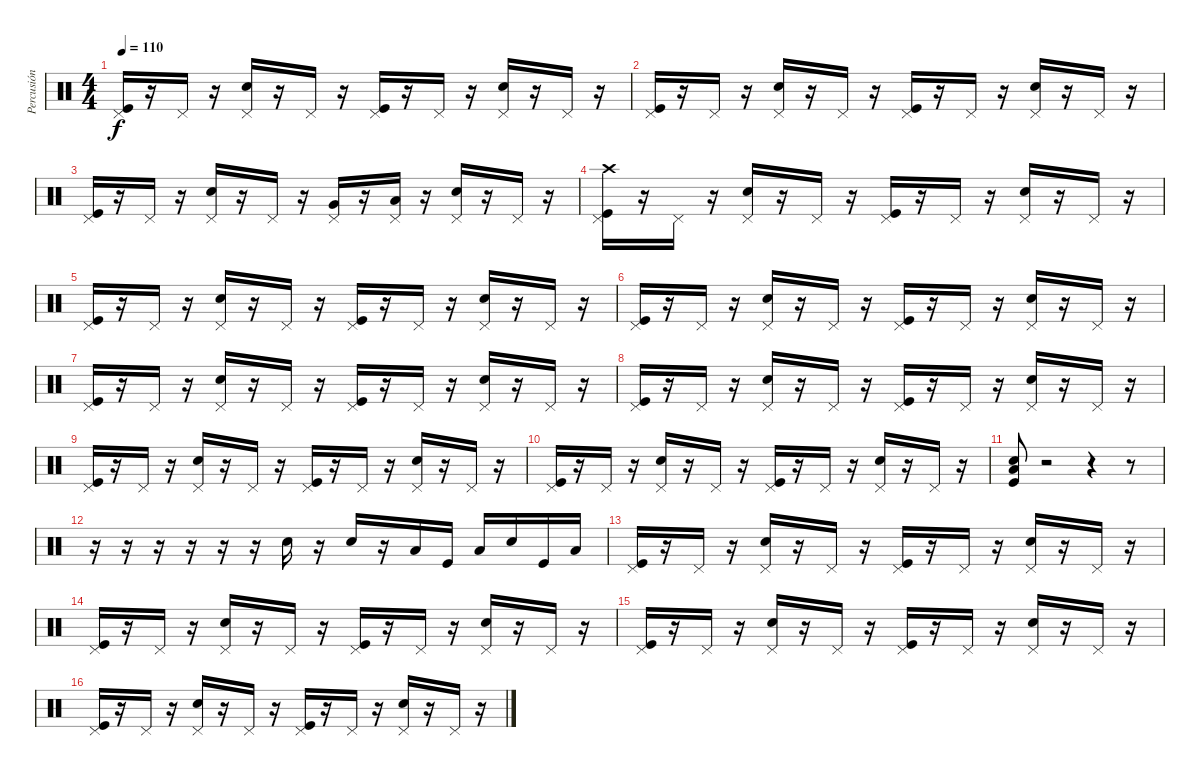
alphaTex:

\track ("Percusión" "Percusión") {instrument percussion}
\staff {score}
\articulation defaults
\ts (4 4)
\tempo 110
\clef neutral
\ks c
("Pedal Hi-Hat (hit)" "Kick (hit)").16{dy f} r.16 "Pedal Hi-Hat (hit)".16 r.16 ("Pedal Hi-Hat (hit)" "Electric Snare (hit)").16 r.16 "Pedal Hi-Hat (hit)".16 r.16 ("Pedal Hi-Hat (hit)" "Kick (hit)").16 r.16 "Pedal Hi-Hat (hit)".16 r.16 ("Pedal Hi-Hat (hit)" "Electric Snare (hit)").16 r.16 "Pedal Hi-Hat (hit)".16 r.16 |
("Pedal Hi-Hat (hit)" "Kick (hit)").16 r.16 "Pedal Hi-Hat (hit)".16 r.16 ("Pedal Hi-Hat (hit)" "Electric Snare (hit)").16 r.16 "Pedal Hi-Hat (hit)".16 r.16 ("Pedal Hi-Hat (hit)" "Kick (hit)").16 r.16 "Pedal Hi-Hat (hit)".16 r.16 ("Pedal Hi-Hat (hit)" "Electric Snare (hit)").16 r.16 "Pedal Hi-Hat (hit)".16 r.16 |
("Pedal Hi-Hat (hit)" "Kick (hit)").16 r.16 "Pedal Hi-Hat (hit)".16 r.16 ("Pedal Hi-Hat (hit)" "Electric Snare (hit)").16 r.16 "Pedal Hi-Hat (hit)".16 r.16 ("Pedal Hi-Hat (hit)" "Very Low Tom (hit)").16 r.16 ("Pedal Hi-Hat (hit)" "Low Tom (hit)").16 r.16 ("Pedal Hi-Hat (hit)" "Electric Snare (hit)").16 r.16 "Pedal Hi-Hat (hit)".16 r.16 |
("Pedal Hi-Hat (hit)" "Crash high (hit)" "Kick (hit)").16 r.16 "Pedal Hi-Hat (hit)".16 r.16 ("Pedal Hi-Hat (hit)" "Electric Snare (hit)").16 r.16 "Pedal Hi-Hat (hit)".16 r.16 ("Pedal Hi-Hat (hit)" "Kick (hit)").16 r.16 "Pedal Hi-Hat (hit)".16 r.16 ("Pedal Hi-Hat (hit)" "Electric Snare (hit)").16 r.16 "Pedal Hi-Hat (hit)".16 r.16 |
("Pedal Hi-Hat (hit)" "Kick (hit)").16 r.16 "Pedal Hi-Hat (hit)".16 r.16 ("Pedal Hi-Hat (hit)" "Electric Snare (hit)").16 r.16 "Pedal Hi-Hat (hit)".16 r.16 ("Pedal Hi-Hat (hit)" "Kick (hit)").16 r.16 "Pedal Hi-Hat (hit)".16 r.16 ("Pedal Hi-Hat (hit)" "Electric Snare (hit)").16 r.16 "Pedal Hi-Hat (hit)".16 r.16 |
("Pedal Hi-Hat (hit)" "Kick (hit)").16 r.16 "Pedal Hi-Hat (hit)".16 r.16 ("Pedal Hi-Hat (hit)" "Electric Snare (hit)").16 r.16 "Pedal Hi-Hat (hit)".16 r.16 ("Pedal Hi-Hat (hit)" "Kick (hit)").16 r.16 "Pedal Hi-Hat (hit)".16 r.16 ("Pedal Hi-Hat (hit)" "Electric Snare (hit)").16 r.16 "Pedal Hi-Hat (hit)".16 r.16 |
("Pedal Hi-Hat (hit)" "Kick (hit)").16 r.16 "Pedal Hi-Hat (hit)".16 r.16 ("Pedal Hi-Hat (hit)" "Electric Snare (hit)").16 r.16 "Pedal Hi-Hat (hit)".16 r.16 ("Pedal Hi-Hat (hit)" "Kick (hit)").16 r.16 "Pedal Hi-Hat (hit)".16 r.16 ("Pedal Hi-Hat (hit)" "Electric Snare (hit)").16 r.16 "Pedal Hi-Hat (hit)".16 r.16 |
("Pedal Hi-Hat (hit)" "Kick (hit)").16 r.16 "Pedal Hi-Hat (hit)".16 r.16 ("Pedal Hi-Hat (hit)" "Electric Snare (hit)").16 r.16 "Pedal Hi-Hat (hit)".16 r.16 ("Pedal Hi-Hat (hit)" "Kick (hit)").16 r.16 "Pedal Hi-Hat (hit)".16 r.16 ("Pedal Hi-Hat (hit)" "Electric Snare (hit)").16 r.16 "Pedal Hi-Hat (hit)".16 r.16 |
("Pedal Hi-Hat (hit)" "Kick (hit)").16 r.16 "Pedal Hi-Hat (hit)".16 r.16 ("Pedal Hi-Hat (hit)" "Electric Snare (hit)").16 r.16 "Pedal Hi-Hat (hit)".16 r.16 ("Pedal Hi-Hat (hit)" "Kick (hit)").16 r.16 "Pedal Hi-Hat (hit)".16 r.16 ("Pedal Hi-Hat (hit)" "Electric Snare (hit)").16 r.16 "Pedal Hi-Hat (hit)".16 r.16 |
("Pedal Hi-Hat (hit)" "Kick (hit)").16 r.16 "Pedal Hi-Hat (hit)".16 r.16 ("Pedal Hi-Hat (hit)" "Electric Snare (hit)").16 r.16 "Pedal Hi-Hat (hit)".16 r.16 ("Pedal Hi-Hat (hit)" "Kick (hit)").16 r.16 "Pedal Hi-Hat (hit)".16 r.16 ("Pedal Hi-Hat (hit)" "Electric Snare (hit)").16 r.16 "Pedal Hi-Hat (hit)".16 r.16 |
("Low Floor Tom (hit)" "Electric Snare (hit)" "Kick (hit)").8 r.2 r.4 r.8 |
r.16 r.16 r.16 r.16 r.16 r.16 "Electric Snare (hit)".16 r.16 "Electric Snare (hit)".16 r.16 "Low Floor Tom (hit)".16 "Kick (hit)".16 "Low Floor Tom (hit)".16 "Electric Snare (hit)".16 "Kick (hit)".16 "Low Floor Tom (hit)".16 |
("Pedal Hi-Hat (hit)" "Kick (hit)").16 r.16 "Pedal Hi-Hat (hit)".16 r.16 ("Pedal Hi-Hat (hit)" "Electric Snare (hit)").16 r.16 "Pedal Hi-Hat (hit)".16 r.16 ("Pedal Hi-Hat (hit)" "Kick (hit)").16 r.16 "Pedal Hi-Hat (hit)".16 r.16 ("Pedal Hi-Hat (hit)" "Electric Snare (hit)").16 r.16 "Pedal Hi-Hat (hit)".16 r.16 |
("Pedal Hi-Hat (hit)" "Kick (hit)").16 r.16 "Pedal Hi-Hat (hit)".16 r.16 ("Pedal Hi-Hat (hit)" "Electric Snare (hit)").16 r.16 "Pedal Hi-Hat (hit)".16 r.16 ("Pedal Hi-Hat (hit)" "Kick (hit)").16 r.16 "Pedal Hi-Hat (hit)".16 r.16 ("Pedal Hi-Hat (hit)" "Electric Snare (hit)").16 r.16 "Pedal Hi-Hat (hit)".16 r.16 |
("Pedal Hi-Hat (hit)" "Kick (hit)").16 r.16 "Pedal Hi-Hat (hit)".16 r.16 ("Pedal Hi-Hat (hit)" "Electric Snare (hit)").16 r.16 "Pedal Hi-Hat (hit)".16 r.16 ("Pedal Hi-Hat (hit)" "Kick (hit)").16 r.16 "Pedal Hi-Hat (hit)".16 r.16 ("Pedal Hi-Hat (hit)" "Electric Snare (hit)").16 r.16 "Pedal Hi-Hat (hit)".16 r.16 |
("Pedal Hi-Hat (hit)" "Kick (hit)").16 r.16 "Pedal Hi-Hat (hit)".16 r.16 ("Pedal Hi-Hat (hit)" "Electric Snare (hit)").16 r.16 "Pedal Hi-Hat (hit)".16 r.16 ("Pedal Hi-Hat (hit)" "Kick (hit)").16 r.16 "Pedal Hi-Hat (hit)".16 r.16 ("Pedal Hi-Hat (hit)" "Electric Snare (hit)").16 r.16 "Pedal Hi-Hat (hit)".16 r.16
